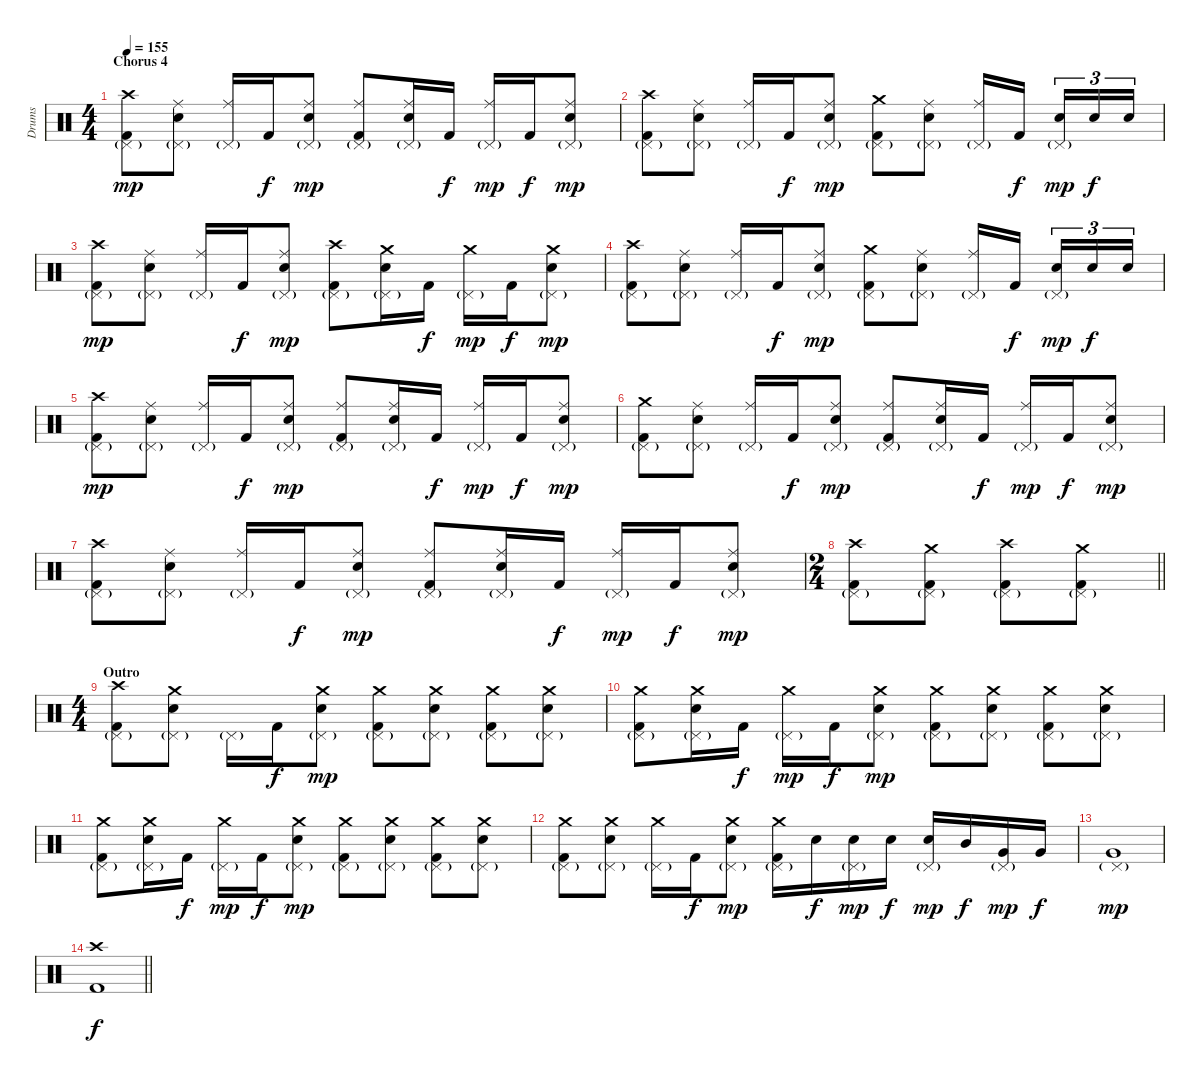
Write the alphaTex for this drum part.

\track ("Drums" "Drums") {instrument percussion}
\staff {score}
\articulation defaults
\ts (4 4)
\section ("" "Chorus 4")
\tempo 155
\clef neutral
\ks c
("Crash high (hit)" "Pedal Hi-Hat (hit)"{g} "Kick (hit) 2").8{dy mp} ("Ride (middle)" "Pedal Hi-Hat (hit)"{g} "Electric Snare (hit)").8 ("Ride (middle)" "Pedal Hi-Hat (hit)"{g}).16 "Kick (hit) 2".16{dy f} ("Ride (middle)" "Pedal Hi-Hat (hit)"{g} "Electric Snare (hit)").8{dy mp} ("Ride (middle)" "Pedal Hi-Hat (hit)"{g} "Kick (hit) 2").8 ("Ride (middle)" "Pedal Hi-Hat (hit)"{g} "Electric Snare (hit)").16 "Kick (hit) 2".16{dy f} ("Ride (middle)" "Pedal Hi-Hat (hit)"{g}).16{dy mp} "Kick (hit) 2".16{dy f} ("Ride (middle)" "Pedal Hi-Hat (hit)"{g} "Electric Snare (hit)").8{dy mp} |
("Crash high (hit)" "Pedal Hi-Hat (hit)"{g} "Kick (hit) 2").8 ("Ride (middle)" "Pedal Hi-Hat (hit)"{g} "Electric Snare (hit)").8 ("Ride (middle)" "Pedal Hi-Hat (hit)"{g}).16 "Kick (hit) 2".16{dy f} ("Ride (middle)" "Pedal Hi-Hat (hit)"{g} "Electric Snare (hit)").8{dy mp} ("Crash medium (hit)" "Pedal Hi-Hat (hit)"{g} "Kick (hit) 2").8 ("Ride (middle)" "Pedal Hi-Hat (hit)"{g} "Electric Snare (hit)").8 ("Ride (middle)" "Pedal Hi-Hat (hit)"{g}).16 "Kick (hit) 2".16{dy f} ("Pedal Hi-Hat (hit)"{g} "Electric Snare (hit)").16{tu (3 2) dy mp} "Electric Snare (hit)".16{tu (3 2) dy f} "Electric Snare (hit)".16{tu (3 2)} |
("Crash high (hit)" "Pedal Hi-Hat (hit)"{g} "Kick (hit) 2").8{dy mp} ("Ride (middle)" "Pedal Hi-Hat (hit)"{g} "Electric Snare (hit)").8 ("Ride (middle)" "Pedal Hi-Hat (hit)"{g}).16 "Kick (hit) 2".16{dy f} ("Ride (middle)" "Pedal Hi-Hat (hit)"{g} "Electric Snare (hit)").8{dy mp} ("Crash high (hit)" "Pedal Hi-Hat (hit)"{g} "Kick (hit) 2").8 ("Crash medium (hit)" "Pedal Hi-Hat (hit)"{g} "Electric Snare (hit)").16 "Kick (hit) 2".16{dy f} ("Crash medium (hit)" "Pedal Hi-Hat (hit)"{g}).16{dy mp} "Kick (hit) 2".16{dy f} ("Crash medium (hit)" "Pedal Hi-Hat (hit)"{g} "Electric Snare (hit)").8{dy mp} |
("Crash high (hit)" "Pedal Hi-Hat (hit)"{g} "Kick (hit) 2").8 ("Ride (middle)" "Pedal Hi-Hat (hit)"{g} "Electric Snare (hit)").8 ("Ride (middle)" "Pedal Hi-Hat (hit)"{g}).16 "Kick (hit) 2".16{dy f} ("Ride (middle)" "Pedal Hi-Hat (hit)"{g} "Electric Snare (hit)").8{dy mp} ("Crash medium (hit)" "Pedal Hi-Hat (hit)"{g} "Kick (hit) 2").8 ("Ride (middle)" "Pedal Hi-Hat (hit)"{g} "Electric Snare (hit)").8 ("Ride (middle)" "Pedal Hi-Hat (hit)"{g}).16 "Kick (hit) 2".16{dy f} ("Pedal Hi-Hat (hit)"{g} "Electric Snare (hit)").16{tu (3 2) dy mp} "Electric Snare (hit)".16{tu (3 2) dy f} "Electric Snare (hit)".16{tu (3 2)} |
("Crash high (hit)" "Pedal Hi-Hat (hit)"{g} "Kick (hit) 2").8{dy mp} ("Ride (middle)" "Pedal Hi-Hat (hit)"{g} "Electric Snare (hit)").8 ("Ride (middle)" "Pedal Hi-Hat (hit)"{g}).16 "Kick (hit) 2".16{dy f} ("Ride (middle)" "Pedal Hi-Hat (hit)"{g} "Electric Snare (hit)").8{dy mp} ("Ride (middle)" "Pedal Hi-Hat (hit)"{g} "Kick (hit) 2").8 ("Ride (middle)" "Pedal Hi-Hat (hit)"{g} "Electric Snare (hit)").16 "Kick (hit) 2".16{dy f} ("Ride (middle)" "Pedal Hi-Hat (hit)"{g}).16{dy mp} "Kick (hit) 2".16{dy f} ("Ride (middle)" "Pedal Hi-Hat (hit)"{g} "Electric Snare (hit)").8{dy mp} |
("Crash medium (hit)" "Pedal Hi-Hat (hit)"{g} "Kick (hit) 2").8 ("Ride (middle)" "Pedal Hi-Hat (hit)"{g} "Electric Snare (hit)").8 ("Ride (middle)" "Pedal Hi-Hat (hit)"{g}).16 "Kick (hit) 2".16{dy f} ("Ride (middle)" "Pedal Hi-Hat (hit)"{g} "Electric Snare (hit)").8{dy mp} ("Ride (middle)" "Pedal Hi-Hat (hit)"{g} "Kick (hit) 2").8 ("Ride (middle)" "Pedal Hi-Hat (hit)"{g} "Electric Snare (hit)").16 "Kick (hit) 2".16{dy f} ("Ride (middle)" "Pedal Hi-Hat (hit)"{g}).16{dy mp} "Kick (hit) 2".16{dy f} ("Ride (middle)" "Pedal Hi-Hat (hit)"{g} "Electric Snare (hit)").8{dy mp} |
("Crash high (hit)" "Pedal Hi-Hat (hit)"{g} "Kick (hit) 2").8 ("Ride (middle)" "Pedal Hi-Hat (hit)"{g} "Electric Snare (hit)").8 ("Ride (middle)" "Pedal Hi-Hat (hit)"{g}).16 "Kick (hit) 2".16{dy f} ("Ride (middle)" "Pedal Hi-Hat (hit)"{g} "Electric Snare (hit)").8{dy mp} ("Ride (middle)" "Pedal Hi-Hat (hit)"{g} "Kick (hit) 2").8 ("Ride (middle)" "Pedal Hi-Hat (hit)"{g} "Electric Snare (hit)").16 "Kick (hit) 2".16{dy f} ("Ride (middle)" "Pedal Hi-Hat (hit)"{g}).16{dy mp} "Kick (hit) 2".16{dy f} ("Ride (middle)" "Pedal Hi-Hat (hit)"{g} "Electric Snare (hit)").8{dy mp} |
\ts (2 4)
\barLineRight lightlight
("Crash high (hit)" "Pedal Hi-Hat (hit)"{g} "Kick (hit) 2").8 ("Crash medium (hit)" "Pedal Hi-Hat (hit)"{g} "Kick (hit) 2").8 ("Crash high (hit)" "Pedal Hi-Hat (hit)"{g} "Kick (hit) 2").8 ("Crash medium (hit)" "Pedal Hi-Hat (hit)"{g} "Kick (hit) 2").8 |
\ts (4 4)
\section ("" "Outro")
("Crash high (hit)" "Pedal Hi-Hat (hit)"{g} "Kick (hit) 2").8 ("Crash medium (hit)" "Pedal Hi-Hat (hit)"{g} "Electric Snare (hit)").8 "Pedal Hi-Hat (hit)"{g}.16 "Kick (hit) 2".16{dy f} ("Crash medium (hit)" "Pedal Hi-Hat (hit)"{g} "Electric Snare (hit)").8{dy mp} ("Crash medium (hit)" "Pedal Hi-Hat (hit)"{g} "Kick (hit) 2").8 ("Crash medium (hit)" "Pedal Hi-Hat (hit)"{g} "Electric Snare (hit)").8 ("Crash medium (hit)" "Pedal Hi-Hat (hit)"{g} "Kick (hit) 2").8 ("Crash medium (hit)" "Pedal Hi-Hat (hit)"{g} "Electric Snare (hit)").8 |
("Crash medium (hit)" "Pedal Hi-Hat (hit)"{g} "Kick (hit) 2").8 ("Crash medium (hit)" "Pedal Hi-Hat (hit)"{g} "Electric Snare (hit)").16 "Kick (hit) 2".16{dy f} ("Crash medium (hit)" "Pedal Hi-Hat (hit)"{g}).16{dy mp} "Kick (hit) 2".16{dy f} ("Crash medium (hit)" "Pedal Hi-Hat (hit)"{g} "Electric Snare (hit)").8{dy mp} ("Crash medium (hit)" "Pedal Hi-Hat (hit)"{g} "Kick (hit) 2").8 ("Crash medium (hit)" "Pedal Hi-Hat (hit)"{g} "Electric Snare (hit)").8 ("Crash medium (hit)" "Pedal Hi-Hat (hit)"{g} "Kick (hit) 2").8 ("Crash medium (hit)" "Pedal Hi-Hat (hit)"{g} "Electric Snare (hit)").8 |
("Crash medium (hit)" "Pedal Hi-Hat (hit)"{g} "Kick (hit) 2").8 ("Crash medium (hit)" "Pedal Hi-Hat (hit)"{g} "Electric Snare (hit)").16 "Kick (hit) 2".16{dy f} ("Crash medium (hit)" "Pedal Hi-Hat (hit)"{g}).16{dy mp} "Kick (hit) 2".16{dy f} ("Crash medium (hit)" "Pedal Hi-Hat (hit)"{g} "Electric Snare (hit)").8{dy mp} ("Crash medium (hit)" "Pedal Hi-Hat (hit)"{g} "Kick (hit) 2").8 ("Crash medium (hit)" "Pedal Hi-Hat (hit)"{g} "Electric Snare (hit)").8 ("Crash medium (hit)" "Pedal Hi-Hat (hit)"{g} "Kick (hit) 2").8 ("Crash medium (hit)" "Pedal Hi-Hat (hit)"{g} "Electric Snare (hit)").8 |
("Crash medium (hit)" "Pedal Hi-Hat (hit)"{g} "Kick (hit) 2").8 ("Crash medium (hit)" "Pedal Hi-Hat (hit)"{g} "Electric Snare (hit)").8 ("Crash medium (hit)" "Pedal Hi-Hat (hit)"{g}).16 "Kick (hit) 2".16{dy f} ("Crash medium (hit)" "Pedal Hi-Hat (hit)"{g} "Electric Snare (hit)").8{dy mp} ("Crash medium (hit)" "Pedal Hi-Hat (hit)"{g} "Kick (hit) 2").16 "Electric Snare (hit)".16{dy f} ("Pedal Hi-Hat (hit)"{g} "Electric Snare (hit)").16{dy mp} "Electric Snare (hit)".16{dy f} ("Pedal Hi-Hat (hit)"{g} "Electric Snare (hit)").16{dy mp} "Mid Tom (hit)".16{dy f} ("Pedal Hi-Hat (hit)"{g} "Very Low Tom (hit)").16{dy mp} "Very Low Tom (hit)".16{dy f} |
("Pedal Hi-Hat (hit)"{g} "Very Low Tom (hit)").1{dy mp} |
\barLineRight lightlight
("Crash high (hit)" "Kick (hit) 2").1{dy f}
